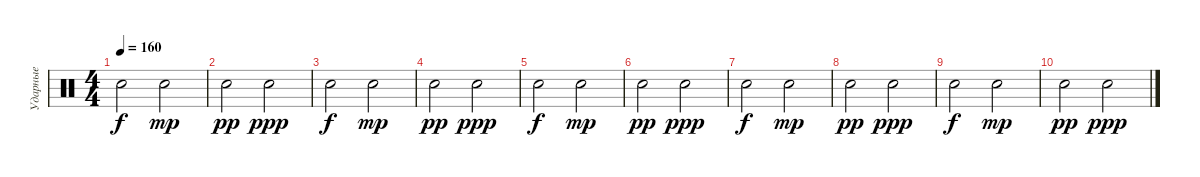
\track ("Ударные" "Ударные") {instrument percussion}
\staff {score}
\articulation defaults
\ts (4 4)
\tempo 160
\clef neutral
\ks c "Snare (hit) 2".2{dy f} "Snare (hit) 2".2{dy mp}
|
"Snare (hit) 2".2{dy pp} "Snare (hit) 2".2{dy ppp} |
"Snare (hit) 2".2{dy f} "Snare (hit) 2".2{dy mp} |
"Snare (hit) 2".2{dy pp} "Snare (hit) 2".2{dy ppp} |
"Snare (hit) 2".2{dy f} "Snare (hit) 2".2{dy mp} |
"Snare (hit) 2".2{dy pp} "Snare (hit) 2".2{dy ppp} |
"Snare (hit) 2".2{dy f} "Snare (hit) 2".2{dy mp} |
"Snare (hit) 2".2{dy pp} "Snare (hit) 2".2{dy ppp} |
"Snare (hit) 2".2{dy f} "Snare (hit) 2".2{dy mp} |
"Snare (hit) 2".2{dy pp} "Snare (hit) 2".2{dy ppp}
